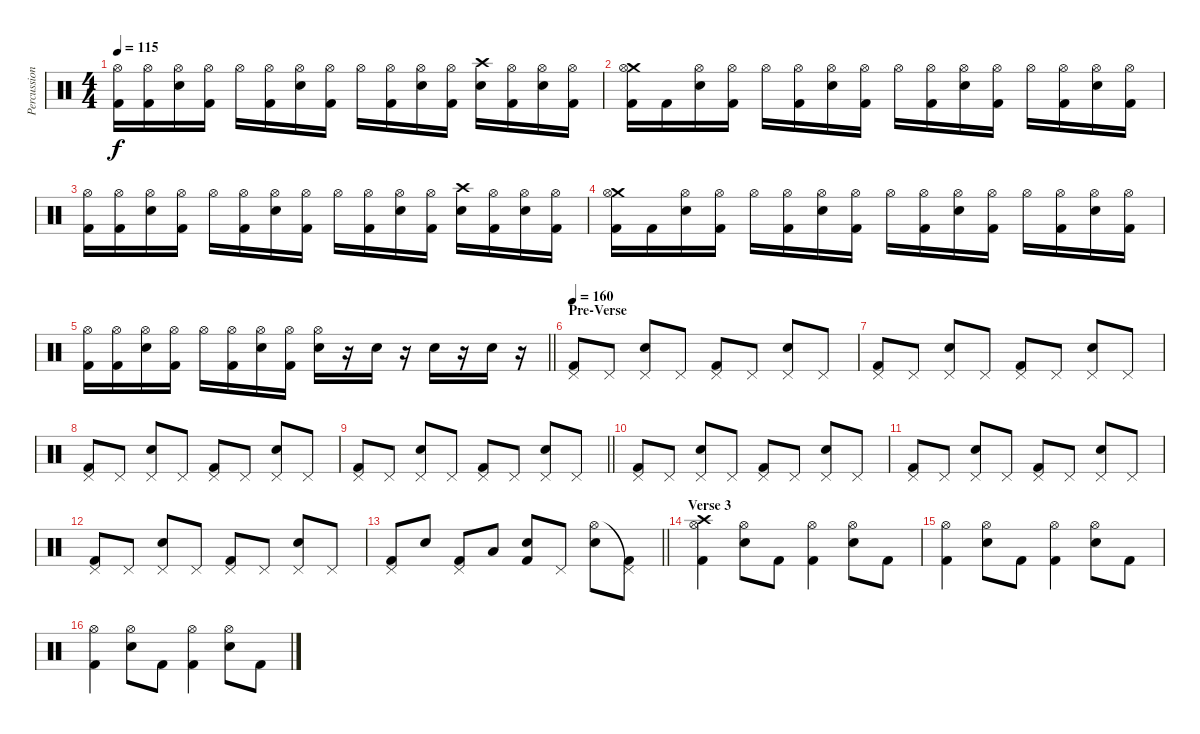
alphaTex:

\track ("Percussion" "Percussion") {instrument percussion}
\staff {score}
\articulation defaults
\ts (4 4)
\tempo 115
\clef neutral
\ks c
("Hi-Hat (open)" "Kick (hit) 2").16{dy f} ("Hi-Hat (open)" "Kick (hit) 2").16 ("Hi-Hat (open)" "Snare (hit) 2").16 ("Hi-Hat (open)" "Kick (hit) 2").16 "Hi-Hat (open)".16 ("Hi-Hat (open)" "Kick (hit) 2").16 ("Hi-Hat (open)" "Snare (hit) 2").16 ("Hi-Hat (open)" "Kick (hit) 2").16 "Hi-Hat (open)".16 ("Hi-Hat (open)" "Kick (hit) 2").16 ("Hi-Hat (open)" "Snare (hit) 2").16 ("Hi-Hat (open)" "Kick (hit) 2").16 ("Crash high (hit)" "Snare (hit) 2").16 ("Hi-Hat (open)" "Kick (hit) 2").16 ("Hi-Hat (open)" "Snare (hit) 2").16 ("Hi-Hat (open)" "Kick (hit) 2").16 |
("Crash medium (hit)" "Hi-Hat (open)" "Kick (hit) 2").16 "Kick (hit) 2".16 ("Hi-Hat (open)" "Snare (hit) 2").16 ("Hi-Hat (open)" "Kick (hit) 2").16 "Hi-Hat (open)".16 ("Hi-Hat (open)" "Kick (hit) 2").16 ("Hi-Hat (open)" "Snare (hit) 2").16 ("Hi-Hat (open)" "Kick (hit) 2").16 "Hi-Hat (open)".16 ("Hi-Hat (open)" "Kick (hit) 2").16 ("Hi-Hat (open)" "Snare (hit) 2").16 ("Hi-Hat (open)" "Kick (hit) 2").16 "Hi-Hat (open)".16 ("Hi-Hat (open)" "Kick (hit) 2").16 ("Hi-Hat (open)" "Snare (hit) 2").16 ("Hi-Hat (open)" "Kick (hit) 2").16 |
("Hi-Hat (open)" "Kick (hit) 2").16 ("Hi-Hat (open)" "Kick (hit) 2").16 ("Hi-Hat (open)" "Snare (hit) 2").16 ("Hi-Hat (open)" "Kick (hit) 2").16 "Hi-Hat (open)".16 ("Hi-Hat (open)" "Kick (hit) 2").16 ("Hi-Hat (open)" "Snare (hit) 2").16 ("Hi-Hat (open)" "Kick (hit) 2").16 "Hi-Hat (open)".16 ("Hi-Hat (open)" "Kick (hit) 2").16 ("Hi-Hat (open)" "Snare (hit) 2").16 ("Hi-Hat (open)" "Kick (hit) 2").16 ("Crash high (hit)" "Snare (hit) 2").16 ("Hi-Hat (open)" "Kick (hit) 2").16 ("Hi-Hat (open)" "Snare (hit) 2").16 ("Hi-Hat (open)" "Kick (hit) 2").16 |
("Crash medium (hit)" "Hi-Hat (open)" "Kick (hit) 2").16 "Kick (hit) 2".16 ("Hi-Hat (open)" "Snare (hit) 2").16 ("Hi-Hat (open)" "Kick (hit) 2").16 "Hi-Hat (open)".16 ("Hi-Hat (open)" "Kick (hit) 2").16 ("Hi-Hat (open)" "Snare (hit) 2").16 ("Hi-Hat (open)" "Kick (hit) 2").16 "Hi-Hat (open)".16 ("Hi-Hat (open)" "Kick (hit) 2").16 ("Hi-Hat (open)" "Snare (hit) 2").16 ("Hi-Hat (open)" "Kick (hit) 2").16 "Hi-Hat (open)".16 ("Hi-Hat (open)" "Kick (hit) 2").16 ("Hi-Hat (open)" "Snare (hit) 2").16 ("Hi-Hat (open)" "Kick (hit) 2").16 |
\barLineRight lightlight
("Hi-Hat (open)" "Kick (hit) 2").16 ("Hi-Hat (open)" "Kick (hit) 2").16 ("Hi-Hat (open)" "Snare (hit) 2").16 ("Hi-Hat (open)" "Kick (hit) 2").16 "Hi-Hat (open)".16 ("Hi-Hat (open)" "Kick (hit) 2").16 ("Hi-Hat (open)" "Snare (hit) 2").16 ("Hi-Hat (open)" "Kick (hit) 2").16 ("Hi-Hat (open)" "Snare (hit) 2").16 r.16 "Snare (hit) 2".16 r.16 "Snare (hit) 2".16 r.16 "Snare (hit) 2".16 r.16 |
\section ("" "Pre-Verse")
\tempo 160
("Pedal Hi-Hat (hit)" "Kick (hit) 2").8 "Pedal Hi-Hat (hit)".8 ("Pedal Hi-Hat (hit)" "Snare (hit) 2").8 "Pedal Hi-Hat (hit)".8 ("Pedal Hi-Hat (hit)" "Kick (hit) 2").8 "Pedal Hi-Hat (hit)".8 ("Pedal Hi-Hat (hit)" "Snare (hit) 2").8 "Pedal Hi-Hat (hit)".8 |
("Pedal Hi-Hat (hit)" "Kick (hit) 2").8 "Pedal Hi-Hat (hit)".8 ("Pedal Hi-Hat (hit)" "Snare (hit) 2").8 "Pedal Hi-Hat (hit)".8 ("Pedal Hi-Hat (hit)" "Kick (hit) 2").8 "Pedal Hi-Hat (hit)".8 ("Pedal Hi-Hat (hit)" "Snare (hit) 2").8 "Pedal Hi-Hat (hit)".8 |
("Pedal Hi-Hat (hit)" "Kick (hit) 2").8 "Pedal Hi-Hat (hit)".8 ("Pedal Hi-Hat (hit)" "Snare (hit) 2").8 "Pedal Hi-Hat (hit)".8 ("Pedal Hi-Hat (hit)" "Kick (hit) 2").8 "Pedal Hi-Hat (hit)".8 ("Pedal Hi-Hat (hit)" "Snare (hit) 2").8 "Pedal Hi-Hat (hit)".8 |
\barLineRight lightlight
("Pedal Hi-Hat (hit)" "Kick (hit) 2").8 "Pedal Hi-Hat (hit)".8 ("Pedal Hi-Hat (hit)" "Snare (hit) 2").8 "Pedal Hi-Hat (hit)".8 ("Pedal Hi-Hat (hit)" "Kick (hit) 2").8 "Pedal Hi-Hat (hit)".8 ("Pedal Hi-Hat (hit)" "Snare (hit) 2").8 "Pedal Hi-Hat (hit)".8 |
("Pedal Hi-Hat (hit)" "Kick (hit) 2").8 "Pedal Hi-Hat (hit)".8 ("Pedal Hi-Hat (hit)" "Snare (hit) 2").8 "Pedal Hi-Hat (hit)".8 ("Pedal Hi-Hat (hit)" "Kick (hit) 2").8 "Pedal Hi-Hat (hit)".8 ("Pedal Hi-Hat (hit)" "Snare (hit) 2").8 "Pedal Hi-Hat (hit)".8 |
("Pedal Hi-Hat (hit)" "Kick (hit) 2").8 "Pedal Hi-Hat (hit)".8 ("Pedal Hi-Hat (hit)" "Snare (hit) 2").8 "Pedal Hi-Hat (hit)".8 ("Pedal Hi-Hat (hit)" "Kick (hit) 2").8 "Pedal Hi-Hat (hit)".8 ("Pedal Hi-Hat (hit)" "Snare (hit) 2").8 "Pedal Hi-Hat (hit)".8 |
("Pedal Hi-Hat (hit)" "Kick (hit) 2").8 "Pedal Hi-Hat (hit)".8 ("Pedal Hi-Hat (hit)" "Snare (hit) 2").8 "Pedal Hi-Hat (hit)".8 ("Pedal Hi-Hat (hit)" "Kick (hit) 2").8 "Pedal Hi-Hat (hit)".8 ("Pedal Hi-Hat (hit)" "Snare (hit) 2").8 "Pedal Hi-Hat (hit)".8 |
\barLineRight lightlight
("Pedal Hi-Hat (hit)" "Kick (hit) 2").8 "Snare (hit) 2".8 ("Pedal Hi-Hat (hit)" "Kick (hit) 2").8 "Low Tom (hit)".8 ("Snare (hit) 2" "Kick (hit) 2").8 "Pedal Hi-Hat (hit)".8 ("Hi-Hat (open)" "Snare (hit) 2").8 ("Pedal Hi-Hat (hit)"{t} "Kick (hit) 2").8 |
\section ("" "Verse 3")
("Crash high (hit)" "Hi-Hat (open)" "Kick (hit) 2").4 ("Hi-Hat (open)" "Snare (hit) 2").8 "Kick (hit) 2".8 ("Hi-Hat (open)" "Kick (hit) 2").4 ("Hi-Hat (open)" "Snare (hit) 2").8 "Kick (hit) 2".8 |
("Hi-Hat (open)" "Kick (hit) 2").4 ("Hi-Hat (open)" "Snare (hit) 2").8 "Kick (hit) 2".8 ("Hi-Hat (open)" "Kick (hit) 2").4 ("Hi-Hat (open)" "Snare (hit) 2").8 "Kick (hit) 2".8 |
("Hi-Hat (open)" "Kick (hit) 2").4 ("Hi-Hat (open)" "Snare (hit) 2").8 "Kick (hit) 2".8 ("Hi-Hat (open)" "Kick (hit) 2").4 ("Hi-Hat (open)" "Snare (hit) 2").8 "Kick (hit) 2".8
